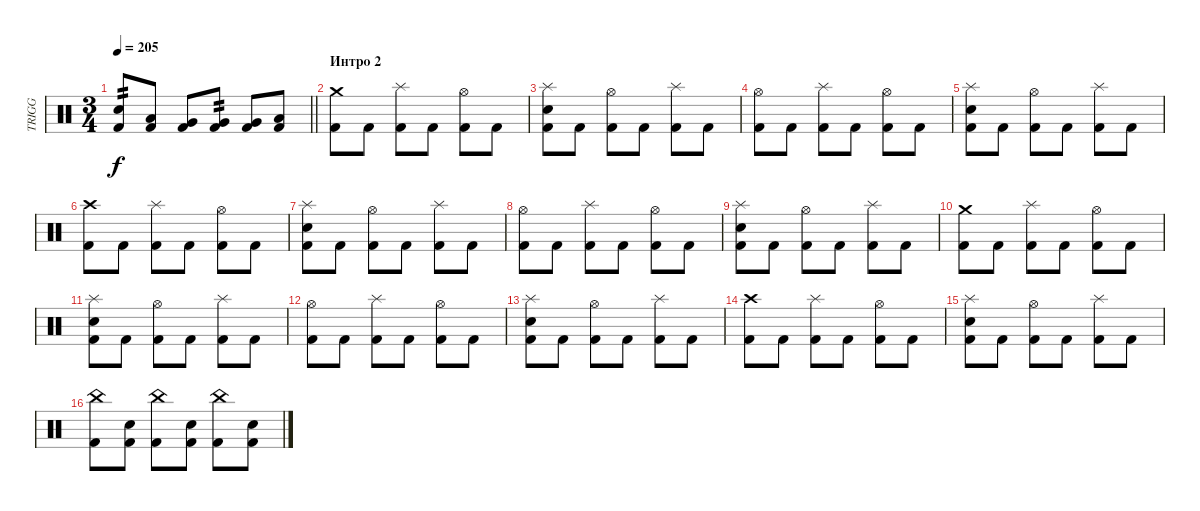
\track ("TRIGG" "TRIGG") {instrument percussion}
\staff {score}
\articulation defaults
\ts (3 4)
\tempo 205
\clef neutral
\barLineRight lightlight
\ks c
("Electric Snare (hit)" "Kick (hit) 2").8{tp 2 dy f} ("Low Tom (hit)" "Kick (hit) 2").8 ("Very Low Tom (hit)" "Kick (hit) 2").8 ("Very Low Tom (hit)" "Kick (hit) 2").8{tp 2} ("Very Low Tom (hit)" "Kick (hit) 2").8 ("Low Floor Tom (hit)" "Kick (hit) 2").8 |
\section ("" "Интро 2")
("Crash medium (hit)" "Kick (hit) 2").8 "Kick (hit) 2".8 ("Splash (hit)" "Kick (hit) 2").8 "Kick (hit) 2".8 ("Hi-Hat (open)" "Kick (hit) 2").8 "Kick (hit) 2".8 |
("Splash (hit)" "Electric Snare (hit)" "Kick (hit) 2").8 "Kick (hit) 2".8 ("Hi-Hat (open)" "Kick (hit) 2").8 "Kick (hit) 2".8 ("Splash (hit)" "Kick (hit) 2").8 "Kick (hit) 2".8 |
("Hi-Hat (open)" "Kick (hit) 2").8 "Kick (hit) 2".8 ("Splash (hit)" "Kick (hit) 2").8 "Kick (hit) 2".8 ("Hi-Hat (open)" "Kick (hit) 2").8 "Kick (hit) 2".8 |
("Splash (hit)" "Electric Snare (hit)" "Kick (hit) 2").8 "Kick (hit) 2".8 ("Hi-Hat (open)" "Kick (hit) 2").8 "Kick (hit) 2".8 ("Splash (hit)" "Kick (hit) 2").8 "Kick (hit) 2".8 |
("Crash high (hit)" "Kick (hit) 2").8 "Kick (hit) 2".8 ("Splash (hit)" "Kick (hit) 2").8 "Kick (hit) 2".8 ("Hi-Hat (open)" "Kick (hit) 2").8 "Kick (hit) 2".8 |
("Splash (hit)" "Electric Snare (hit)" "Kick (hit) 2").8 "Kick (hit) 2".8 ("Hi-Hat (open)" "Kick (hit) 2").8 "Kick (hit) 2".8 ("Splash (hit)" "Kick (hit) 2").8 "Kick (hit) 2".8 |
("Hi-Hat (open)" "Kick (hit) 2").8 "Kick (hit) 2".8 ("Splash (hit)" "Kick (hit) 2").8 "Kick (hit) 2".8 ("Hi-Hat (open)" "Kick (hit) 2").8 "Kick (hit) 2".8 |
("Splash (hit)" "Electric Snare (hit)" "Kick (hit) 2").8 "Kick (hit) 2".8 ("Hi-Hat (open)" "Kick (hit) 2").8 "Kick (hit) 2".8 ("Splash (hit)" "Kick (hit) 2").8 "Kick (hit) 2".8 |
("Crash medium (hit)" "Kick (hit) 2").8 "Kick (hit) 2".8 ("Splash (hit)" "Kick (hit) 2").8 "Kick (hit) 2".8 ("Hi-Hat (open)" "Kick (hit) 2").8 "Kick (hit) 2".8 |
("Splash (hit)" "Electric Snare (hit)" "Kick (hit) 2").8 "Kick (hit) 2".8 ("Hi-Hat (open)" "Kick (hit) 2").8 "Kick (hit) 2".8 ("Splash (hit)" "Kick (hit) 2").8 "Kick (hit) 2".8 |
("Hi-Hat (open)" "Kick (hit) 2").8 "Kick (hit) 2".8 ("Splash (hit)" "Kick (hit) 2").8 "Kick (hit) 2".8 ("Hi-Hat (open)" "Kick (hit) 2").8 "Kick (hit) 2".8 |
("Splash (hit)" "Electric Snare (hit)" "Kick (hit) 2").8 "Kick (hit) 2".8 ("Hi-Hat (open)" "Kick (hit) 2").8 "Kick (hit) 2".8 ("Splash (hit)" "Kick (hit) 2").8 "Kick (hit) 2".8 |
("Crash high (hit)" "Kick (hit) 2").8 "Kick (hit) 2".8 ("Splash (hit)" "Kick (hit) 2").8 "Kick (hit) 2".8 ("Hi-Hat (open)" "Kick (hit) 2").8 "Kick (hit) 2".8 |
("Splash (hit)" "Electric Snare (hit)" "Kick (hit) 2").8 "Kick (hit) 2".8 ("Hi-Hat (open)" "Kick (hit) 2").8 "Kick (hit) 2".8 ("Splash (hit)" "Kick (hit) 2").8 "Kick (hit) 2".8 |
("China (hit)" "Kick (hit) 2").8 ("Electric Snare (hit)" "Kick (hit) 2").8 ("China (hit)" "Kick (hit) 2").8 ("Electric Snare (hit)" "Kick (hit) 2").8 ("China (hit)" "Kick (hit) 2").8 ("Electric Snare (hit)" "Kick (hit) 2").8
